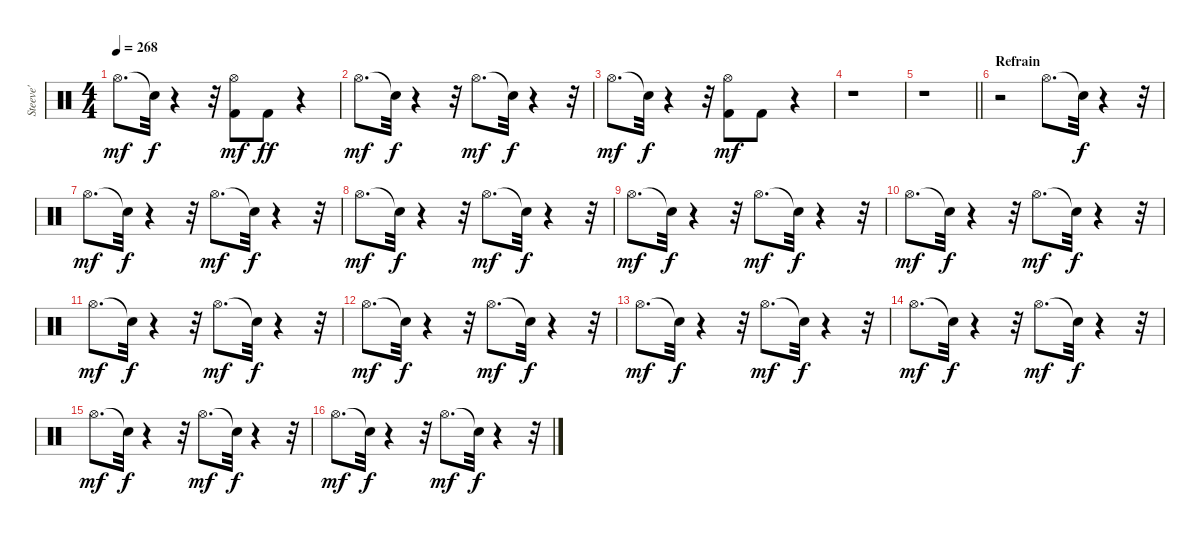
\track ("Steeve'" "Steeve'") {instrument percussion}
\staff {score}
\articulation defaults
\ts (4 4)
\tempo 268
\clef neutral
\ks c "Hi-Hat (open)".8{d dy mf} "Snare (hit)"{t}.32{dy f}
r.4 r.32 ("Kick (hit) 2" "Hi-Hat (open)").8{dy mf} "Kick (hit) 2".8{dy ff} r.4 |
"Hi-Hat (open)".8{d dy mf} "Snare (hit)"{t}.32{dy f} r.4 r.32 "Hi-Hat (open)".8{d dy mf} "Snare (hit)"{t}.32{dy f} r.4 r.32 |
"Hi-Hat (open)".8{d dy mf} "Snare (hit)"{t}.32{dy f} r.4 r.32 ("Kick (hit) 2" "Hi-Hat (open)").8{dy mf} "Kick (hit) 2".8 r.4 |
r.1 |
\barLineRight lightlight
r.1 |
\section ("" "Refrain")
r.2 "Hi-Hat (open)".8{d} "Snare (hit)"{t}.32{dy f} r.4 r.32 |
"Hi-Hat (open)".8{d dy mf} "Snare (hit)"{t}.32{dy f} r.4 r.32 "Hi-Hat (open)".8{d dy mf} "Snare (hit)"{t}.32{dy f} r.4 r.32 |
"Hi-Hat (open)".8{d dy mf} "Snare (hit)"{t}.32{dy f} r.4 r.32 "Hi-Hat (open)".8{d dy mf} "Snare (hit)"{t}.32{dy f} r.4 r.32 |
"Hi-Hat (open)".8{d dy mf} "Snare (hit)"{t}.32{dy f} r.4 r.32 "Hi-Hat (open)".8{d dy mf} "Snare (hit)"{t}.32{dy f} r.4 r.32 |
"Hi-Hat (open)".8{d dy mf} "Snare (hit)"{t}.32{dy f} r.4 r.32 "Hi-Hat (open)".8{d dy mf} "Snare (hit)"{t}.32{dy f} r.4 r.32 |
"Hi-Hat (open)".8{d dy mf} "Snare (hit)"{t}.32{dy f} r.4 r.32 "Hi-Hat (open)".8{d dy mf} "Snare (hit)"{t}.32{dy f} r.4 r.32 |
"Hi-Hat (open)".8{d dy mf} "Snare (hit)"{t}.32{dy f} r.4 r.32 "Hi-Hat (open)".8{d dy mf} "Snare (hit)"{t}.32{dy f} r.4 r.32 |
"Hi-Hat (open)".8{d dy mf} "Snare (hit)"{t}.32{dy f} r.4 r.32 "Hi-Hat (open)".8{d dy mf} "Snare (hit)"{t}.32{dy f} r.4 r.32 |
"Hi-Hat (open)".8{d dy mf} "Snare (hit)"{t}.32{dy f} r.4 r.32 "Hi-Hat (open)".8{d dy mf} "Snare (hit)"{t}.32{dy f} r.4 r.32 |
"Hi-Hat (open)".8{d dy mf} "Snare (hit)"{t}.32{dy f} r.4 r.32 "Hi-Hat (open)".8{d dy mf} "Snare (hit)"{t}.32{dy f} r.4 r.32 |
"Hi-Hat (open)".8{d dy mf} "Snare (hit)"{t}.32{dy f} r.4 r.32 "Hi-Hat (open)".8{d dy mf} "Snare (hit)"{t}.32{dy f} r.4 r.32
